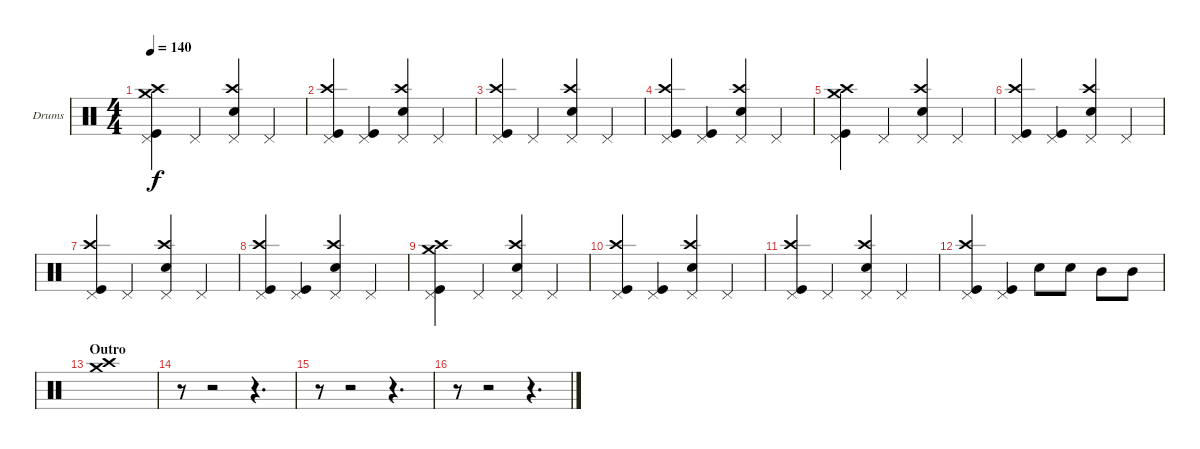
\bracketExtendMode groupsimilarinstruments
\firstSystemTrackNameOrientation horizontal
\otherSystemsTrackNameOrientation horizontal
\track ("Drumkit" "Drums") {instrument percussion}
\staff {score}
\articulation defaults
\ts (4 4)
\tempo 140
\clef neutral
\ks c
("Crash medium (hit)" "Pedal Hi-Hat (hit)" "Crash high (hit)" "Kick (hit)").4{dy f} "Pedal Hi-Hat (hit)".4 ("Crash high (hit)" "Pedal Hi-Hat (hit)" "Snare (hit) 2").4 "Pedal Hi-Hat (hit)".4 |
("Crash high (hit)" "Pedal Hi-Hat (hit)" "Kick (hit)").4 ("Pedal Hi-Hat (hit)" "Kick (hit)").4 ("Crash high (hit)" "Pedal Hi-Hat (hit)" "Snare (hit) 2").4 "Pedal Hi-Hat (hit)".4 |
("Crash high (hit)" "Pedal Hi-Hat (hit)" "Kick (hit)").4 "Pedal Hi-Hat (hit)".4 ("Crash high (hit)" "Pedal Hi-Hat (hit)" "Snare (hit) 2").4 "Pedal Hi-Hat (hit)".4 |
("Crash high (hit)" "Pedal Hi-Hat (hit)" "Kick (hit)").4 ("Pedal Hi-Hat (hit)" "Kick (hit)").4 ("Crash high (hit)" "Pedal Hi-Hat (hit)" "Snare (hit) 2").4 "Pedal Hi-Hat (hit)".4 |
("Crash medium (hit)" "Pedal Hi-Hat (hit)" "Crash high (hit)" "Kick (hit)").4 "Pedal Hi-Hat (hit)".4 ("Crash high (hit)" "Pedal Hi-Hat (hit)" "Snare (hit) 2").4 "Pedal Hi-Hat (hit)".4 |
("Crash high (hit)" "Pedal Hi-Hat (hit)" "Kick (hit)").4 ("Pedal Hi-Hat (hit)" "Kick (hit)").4 ("Crash high (hit)" "Pedal Hi-Hat (hit)" "Snare (hit) 2").4 "Pedal Hi-Hat (hit)".4 |
("Crash high (hit)" "Pedal Hi-Hat (hit)" "Kick (hit)").4 "Pedal Hi-Hat (hit)".4 ("Crash high (hit)" "Pedal Hi-Hat (hit)" "Snare (hit) 2").4 "Pedal Hi-Hat (hit)".4 |
("Crash high (hit)" "Pedal Hi-Hat (hit)" "Kick (hit)").4 ("Pedal Hi-Hat (hit)" "Kick (hit)").4 ("Crash high (hit)" "Pedal Hi-Hat (hit)" "Snare (hit) 2").4 "Pedal Hi-Hat (hit)".4 |
("Crash medium (hit)" "Pedal Hi-Hat (hit)" "Crash high (hit)" "Kick (hit)").4 "Pedal Hi-Hat (hit)".4 ("Crash high (hit)" "Pedal Hi-Hat (hit)" "Snare (hit) 2").4 "Pedal Hi-Hat (hit)".4 |
("Crash high (hit)" "Pedal Hi-Hat (hit)" "Kick (hit)").4 ("Pedal Hi-Hat (hit)" "Kick (hit)").4 ("Crash high (hit)" "Pedal Hi-Hat (hit)" "Snare (hit) 2").4 "Pedal Hi-Hat (hit)".4 |
("Crash high (hit)" "Pedal Hi-Hat (hit)" "Kick (hit)").4 "Pedal Hi-Hat (hit)".4 ("Crash high (hit)" "Pedal Hi-Hat (hit)" "Snare (hit) 2").4 "Pedal Hi-Hat (hit)".4 |
("Crash high (hit)" "Pedal Hi-Hat (hit)" "Kick (hit)").4 ("Pedal Hi-Hat (hit)" "Kick (hit)").4 "Snare (hit) 2".8 "Snare (hit) 2".8 "Mid Tom (hit)".8 "Mid Tom (hit)".8 |
\section ("" "Outro")
("Crash medium (hit)" "Crash high (hit)").1 |
r.8 r.2 r.4{d} |
r.8 r.2 r.4{d} |
r.8 r.2 r.4{d}
